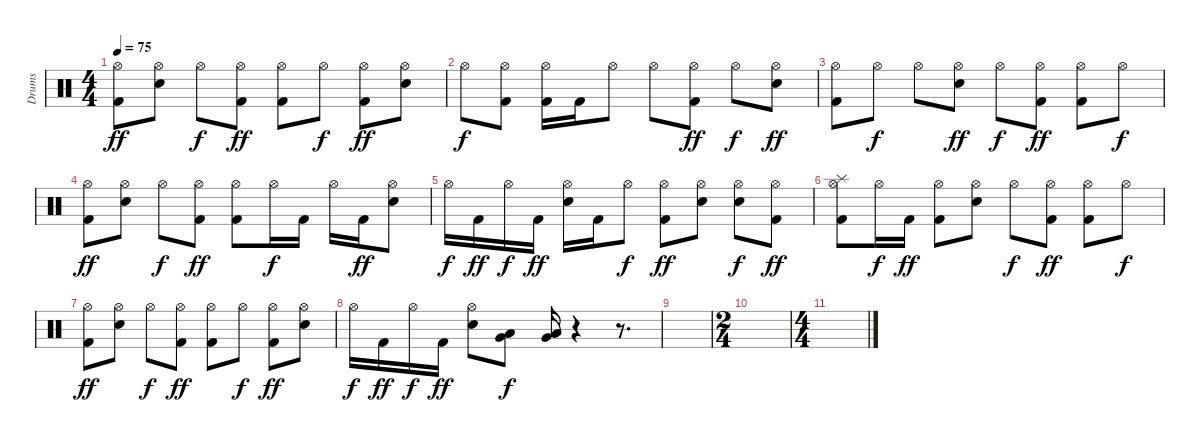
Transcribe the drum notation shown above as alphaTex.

\track ("Drums" "Drums") {instrument percussion}
\staff {score}
\articulation defaults
\ts (4 4)
\tempo 75
\clef neutral
\ks c
("Hi-Hat (open)" "Kick (hit) 2").8{dy ff} ("Hi-Hat (open)" "Electric Snare (hit)").8 "Hi-Hat (open)".8{dy f} ("Hi-Hat (open)" "Kick (hit) 2").8{dy ff} ("Hi-Hat (open)" "Kick (hit) 2").8 "Hi-Hat (open)".8{dy f} ("Hi-Hat (open)" "Kick (hit) 2").8{dy ff} ("Hi-Hat (open)" "Electric Snare (hit)").8 |
"Hi-Hat (open)".8{dy f} ("Hi-Hat (open)" "Kick (hit) 2").8 ("Hi-Hat (open)" "Kick (hit) 2").16 "Kick (hit) 2".16 "Hi-Hat (open)".8 "Hi-Hat (open)".8 ("Hi-Hat (open)" "Kick (hit) 2").8{dy ff} "Hi-Hat (open)".8{dy f} ("Hi-Hat (open)" "Electric Snare (hit)").8{dy ff} |
("Hi-Hat (open)" "Kick (hit) 2").8 "Hi-Hat (open)".8{dy f} "Hi-Hat (open)".8 ("Hi-Hat (open)" "Electric Snare (hit)").8{dy ff} "Hi-Hat (open)".8{dy f} ("Hi-Hat (open)" "Kick (hit) 2").8{dy ff} ("Hi-Hat (open)" "Kick (hit) 2").8 "Hi-Hat (open)".8{dy f} |
("Hi-Hat (open)" "Kick (hit) 2").8{dy ff} ("Hi-Hat (open)" "Electric Snare (hit)").8 "Hi-Hat (open)".8{dy f} ("Hi-Hat (open)" "Kick (hit) 2").8{dy ff} ("Hi-Hat (open)" "Kick (hit) 2").8 "Hi-Hat (open)".16{dy f} "Kick (hit) 2".16 "Hi-Hat (open)".16 "Kick (hit) 2".16{dy ff} ("Hi-Hat (open)" "Electric Snare (hit)").8 |
"Hi-Hat (open)".16{dy f} "Kick (hit) 2".16{dy ff} "Hi-Hat (open)".16{dy f} "Kick (hit) 2".16{dy ff} ("Hi-Hat (open)" "Electric Snare (hit)").16 "Kick (hit) 2".16 "Hi-Hat (open)".8{dy f} ("Hi-Hat (open)" "Kick (hit) 2").8{dy ff} ("Hi-Hat (open)" "Electric Snare (hit)").8 ("Hi-Hat (open)" "Electric Snare (hit)").8{dy f} ("Hi-Hat (open)" "Kick (hit) 2").8{dy ff} |
("Hi-Hat (open)" "Splash (hit)" "Kick (hit) 2").8 "Hi-Hat (open)".16{dy f} "Kick (hit) 2".16{dy ff} ("Hi-Hat (open)" "Kick (hit) 2").8 ("Hi-Hat (open)" "Electric Snare (hit)").8 "Hi-Hat (open)".8{dy f} ("Hi-Hat (open)" "Kick (hit) 2").8{dy ff} ("Hi-Hat (open)" "Kick (hit) 2").8 "Hi-Hat (open)".8{dy f} |
("Hi-Hat (open)" "Kick (hit) 2").8{dy ff} ("Hi-Hat (open)" "Electric Snare (hit)").8 "Hi-Hat (open)".8{dy f} ("Hi-Hat (open)" "Kick (hit) 2").8{dy ff} ("Hi-Hat (open)" "Kick (hit) 2").8 "Hi-Hat (open)".8{dy f} ("Hi-Hat (open)" "Kick (hit) 2").8{dy ff} ("Hi-Hat (open)" "Electric Snare (hit)").8 |
"Hi-Hat (open)".16{dy f} "Kick (hit) 2".16{dy ff} "Hi-Hat (open)".16{dy f} "Kick (hit) 2".16{dy ff} ("Hi-Hat (open)" "Electric Snare (hit)").8 ("Low Tom (hit)" "Very Low Tom (hit)").8{dy f} ("Low Tom (hit)" "Very Low Tom (hit)").16 r.4 r.8{d} |
|
\ts (2 4)
|
\ts (4 4)
